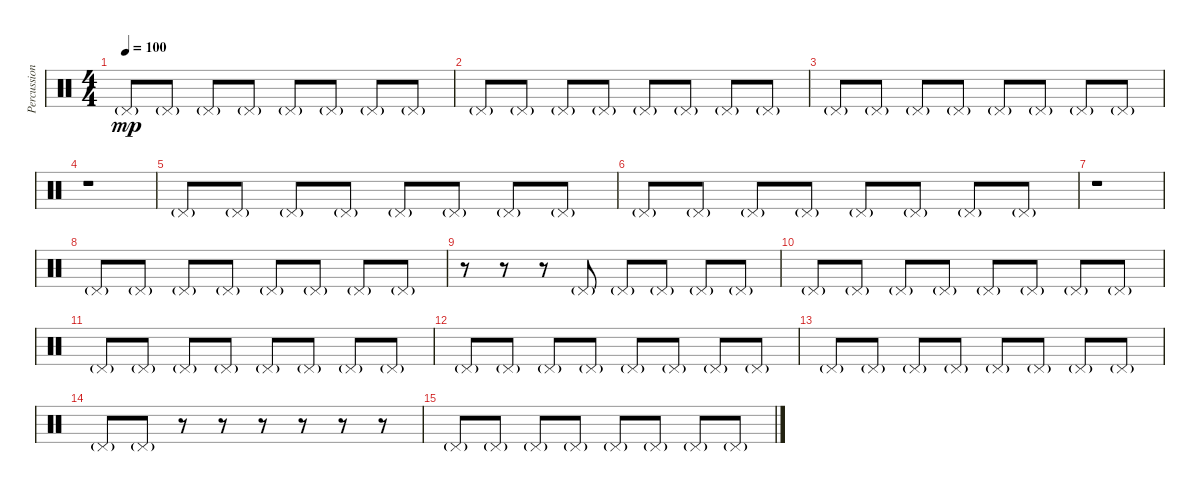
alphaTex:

\track ("Percussion" "Percussion") {instrument percussion}
\staff {score}
\articulation defaults
\ts (4 4)
\tempo 100
\clef neutral
\ks c "Pedal Hi-Hat (hit)"{g}.8{dy mp} "Pedal Hi-Hat (hit)"{g}.8 "Pedal Hi-Hat (hit)"{g}.8 "Pedal Hi-Hat (hit)"{g}.8 "Pedal Hi-Hat (hit)"{g}.8 "Pedal Hi-Hat (hit)"{g}.8 "Pedal Hi-Hat (hit)"{g}.8 "Pedal Hi-Hat (hit)"{g}.8
|
"Pedal Hi-Hat (hit)"{g}.8 "Pedal Hi-Hat (hit)"{g}.8 "Pedal Hi-Hat (hit)"{g}.8 "Pedal Hi-Hat (hit)"{g}.8 "Pedal Hi-Hat (hit)"{g}.8 "Pedal Hi-Hat (hit)"{g}.8 "Pedal Hi-Hat (hit)"{g}.8 "Pedal Hi-Hat (hit)"{g}.8 |
"Pedal Hi-Hat (hit)"{g}.8 "Pedal Hi-Hat (hit)"{g}.8 "Pedal Hi-Hat (hit)"{g}.8 "Pedal Hi-Hat (hit)"{g}.8 "Pedal Hi-Hat (hit)"{g}.8 "Pedal Hi-Hat (hit)"{g}.8 "Pedal Hi-Hat (hit)"{g}.8 "Pedal Hi-Hat (hit)"{g}.8 |
r.1 |
"Pedal Hi-Hat (hit)"{g}.8 "Pedal Hi-Hat (hit)"{g}.8 "Pedal Hi-Hat (hit)"{g}.8 "Pedal Hi-Hat (hit)"{g}.8 "Pedal Hi-Hat (hit)"{g}.8 "Pedal Hi-Hat (hit)"{g}.8 "Pedal Hi-Hat (hit)"{g}.8 "Pedal Hi-Hat (hit)"{g}.8 |
"Pedal Hi-Hat (hit)"{g}.8 "Pedal Hi-Hat (hit)"{g}.8 "Pedal Hi-Hat (hit)"{g}.8 "Pedal Hi-Hat (hit)"{g}.8 "Pedal Hi-Hat (hit)"{g}.8 "Pedal Hi-Hat (hit)"{g}.8 "Pedal Hi-Hat (hit)"{g}.8 "Pedal Hi-Hat (hit)"{g}.8 |
r.1 |
"Pedal Hi-Hat (hit)"{g}.8 "Pedal Hi-Hat (hit)"{g}.8 "Pedal Hi-Hat (hit)"{g}.8 "Pedal Hi-Hat (hit)"{g}.8 "Pedal Hi-Hat (hit)"{g}.8 "Pedal Hi-Hat (hit)"{g}.8 "Pedal Hi-Hat (hit)"{g}.8 "Pedal Hi-Hat (hit)"{g}.8 |
r.8 r.8 r.8 "Pedal Hi-Hat (hit)"{g}.8 "Pedal Hi-Hat (hit)"{g}.8 "Pedal Hi-Hat (hit)"{g}.8 "Pedal Hi-Hat (hit)"{g}.8 "Pedal Hi-Hat (hit)"{g}.8 |
"Pedal Hi-Hat (hit)"{g}.8 "Pedal Hi-Hat (hit)"{g}.8 "Pedal Hi-Hat (hit)"{g}.8 "Pedal Hi-Hat (hit)"{g}.8 "Pedal Hi-Hat (hit)"{g}.8 "Pedal Hi-Hat (hit)"{g}.8 "Pedal Hi-Hat (hit)"{g}.8 "Pedal Hi-Hat (hit)"{g}.8 |
"Pedal Hi-Hat (hit)"{g}.8 "Pedal Hi-Hat (hit)"{g}.8 "Pedal Hi-Hat (hit)"{g}.8 "Pedal Hi-Hat (hit)"{g}.8 "Pedal Hi-Hat (hit)"{g}.8 "Pedal Hi-Hat (hit)"{g}.8 "Pedal Hi-Hat (hit)"{g}.8 "Pedal Hi-Hat (hit)"{g}.8 |
"Pedal Hi-Hat (hit)"{g}.8 "Pedal Hi-Hat (hit)"{g}.8 "Pedal Hi-Hat (hit)"{g}.8 "Pedal Hi-Hat (hit)"{g}.8 "Pedal Hi-Hat (hit)"{g}.8 "Pedal Hi-Hat (hit)"{g}.8 "Pedal Hi-Hat (hit)"{g}.8 "Pedal Hi-Hat (hit)"{g}.8 |
"Pedal Hi-Hat (hit)"{g}.8 "Pedal Hi-Hat (hit)"{g}.8 "Pedal Hi-Hat (hit)"{g}.8 "Pedal Hi-Hat (hit)"{g}.8 "Pedal Hi-Hat (hit)"{g}.8 "Pedal Hi-Hat (hit)"{g}.8 "Pedal Hi-Hat (hit)"{g}.8 "Pedal Hi-Hat (hit)"{g}.8 |
"Pedal Hi-Hat (hit)"{g}.8 "Pedal Hi-Hat (hit)"{g}.8 r.8 r.8 r.8 r.8 r.8 r.8 |
"Pedal Hi-Hat (hit)"{g}.8 "Pedal Hi-Hat (hit)"{g}.8 "Pedal Hi-Hat (hit)"{g}.8 "Pedal Hi-Hat (hit)"{g}.8 "Pedal Hi-Hat (hit)"{g}.8 "Pedal Hi-Hat (hit)"{g}.8 "Pedal Hi-Hat (hit)"{g}.8 "Pedal Hi-Hat (hit)"{g}.8
